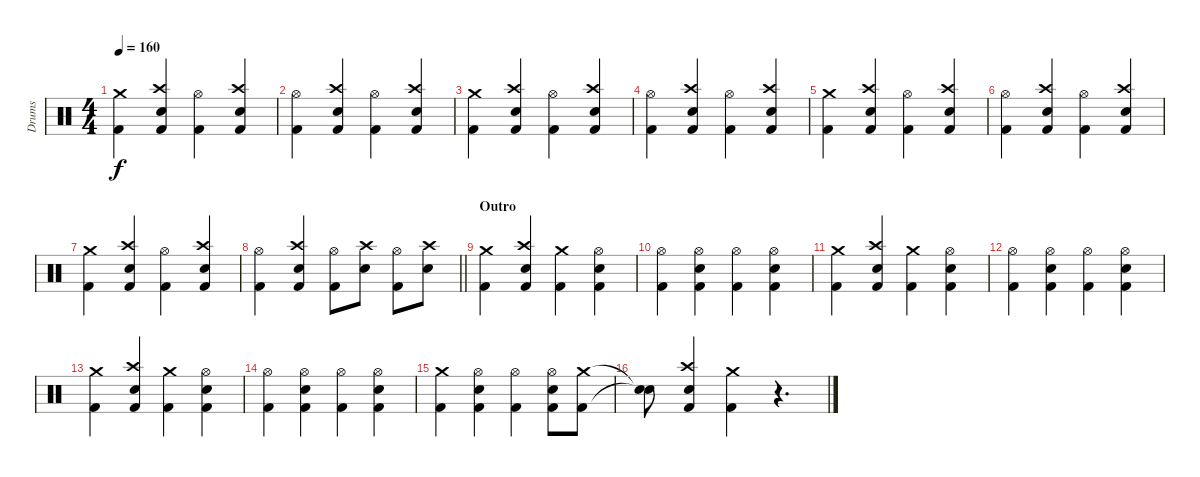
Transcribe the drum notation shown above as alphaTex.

\track ("Drums" "Drums") {instrument percussion}
\staff {score}
\articulation defaults
\ts (4 4)
\tempo 160
\clef neutral
\ks c
("Crash medium (hit)" "Kick (hit) 2").4{dy f} ("Crash high (hit)" "Electric Snare (hit)" "Kick (hit) 2").4 ("Hi-Hat (open)" "Kick (hit) 2").4 ("Crash high (hit)" "Electric Snare (hit)" "Kick (hit) 2").4 |
("Hi-Hat (open)" "Kick (hit) 2").4 ("Crash high (hit)" "Electric Snare (hit)" "Kick (hit) 2").4 ("Hi-Hat (open)" "Kick (hit) 2").4 ("Crash high (hit)" "Electric Snare (hit)" "Kick (hit) 2").4 |
("Crash medium (hit)" "Kick (hit) 2").4 ("Crash high (hit)" "Electric Snare (hit)" "Kick (hit) 2").4 ("Hi-Hat (open)" "Kick (hit) 2").4 ("Crash high (hit)" "Electric Snare (hit)" "Kick (hit) 2").4 |
("Hi-Hat (open)" "Kick (hit) 2").4 ("Crash high (hit)" "Electric Snare (hit)" "Kick (hit) 2").4 ("Hi-Hat (open)" "Kick (hit) 2").4 ("Crash high (hit)" "Electric Snare (hit)" "Kick (hit) 2").4 |
("Crash medium (hit)" "Kick (hit) 2").4 ("Crash high (hit)" "Electric Snare (hit)" "Kick (hit) 2").4 ("Hi-Hat (open)" "Kick (hit) 2").4 ("Crash high (hit)" "Electric Snare (hit)" "Kick (hit) 2").4 |
("Hi-Hat (open)" "Kick (hit) 2").4 ("Crash high (hit)" "Electric Snare (hit)" "Kick (hit) 2").4 ("Hi-Hat (open)" "Kick (hit) 2").4 ("Crash high (hit)" "Electric Snare (hit)" "Kick (hit) 2").4 |
("Crash medium (hit)" "Kick (hit) 2").4 ("Crash high (hit)" "Electric Snare (hit)" "Kick (hit) 2").4 ("Hi-Hat (open)" "Kick (hit) 2").4 ("Crash high (hit)" "Electric Snare (hit)" "Kick (hit) 2").4 |
\barLineRight lightlight
("Hi-Hat (open)" "Kick (hit) 2").4 ("Crash high (hit)" "Electric Snare (hit)" "Kick (hit) 2").4 ("Hi-Hat (open)" "Kick (hit) 2").8 ("Crash high (hit)" "Electric Snare (hit)").8 ("Hi-Hat (open)" "Kick (hit) 2").8 ("Crash high (hit)" "Electric Snare (hit)").8 |
\section ("" "Outro")
("Crash medium (hit)" "Kick (hit) 2").4 ("Crash high (hit)" "Electric Snare (hit)" "Kick (hit) 2").4 ("Crash medium (hit)" "Kick (hit) 2").4 ("Hi-Hat (open)" "Electric Snare (hit)" "Kick (hit) 2").4 |
("Hi-Hat (open)" "Kick (hit) 2").4 ("Hi-Hat (open)" "Electric Snare (hit)" "Kick (hit) 2").4 ("Hi-Hat (open)" "Kick (hit) 2").4 ("Hi-Hat (open)" "Electric Snare (hit)" "Kick (hit) 2").4 |
("Crash medium (hit)" "Kick (hit) 2").4 ("Crash high (hit)" "Electric Snare (hit)" "Kick (hit) 2").4 ("Crash medium (hit)" "Kick (hit) 2").4 ("Hi-Hat (open)" "Electric Snare (hit)" "Kick (hit) 2").4 |
("Hi-Hat (open)" "Kick (hit) 2").4 ("Hi-Hat (open)" "Electric Snare (hit)" "Kick (hit) 2").4 ("Hi-Hat (open)" "Kick (hit) 2").4 ("Hi-Hat (open)" "Electric Snare (hit)" "Kick (hit) 2").4 |
("Crash medium (hit)" "Kick (hit) 2").4 ("Crash high (hit)" "Electric Snare (hit)" "Kick (hit) 2").4 ("Crash medium (hit)" "Kick (hit) 2").4 ("Hi-Hat (open)" "Electric Snare (hit)" "Kick (hit) 2").4 |
("Hi-Hat (open)" "Kick (hit) 2").4 ("Hi-Hat (open)" "Electric Snare (hit)" "Kick (hit) 2").4 ("Hi-Hat (open)" "Kick (hit) 2").4 ("Hi-Hat (open)" "Electric Snare (hit)" "Kick (hit) 2").4 |
("Crash medium (hit)" "Kick (hit) 2").4 ("Hi-Hat (open)" "Electric Snare (hit)" "Kick (hit) 2").4 ("Hi-Hat (open)" "Kick (hit) 2").4 ("Hi-Hat (open)" "Electric Snare (hit)" "Kick (hit) 2").8 ("Crash medium (hit)" "Kick (hit) 2").8 |
("Snare (hit)"{t} "Snare (hit)"{t}).8 ("Crash high (hit)" "Electric Snare (hit)" "Kick (hit) 2").4 ("Crash medium (hit)" "Kick (hit) 2").4 r.4{d}
